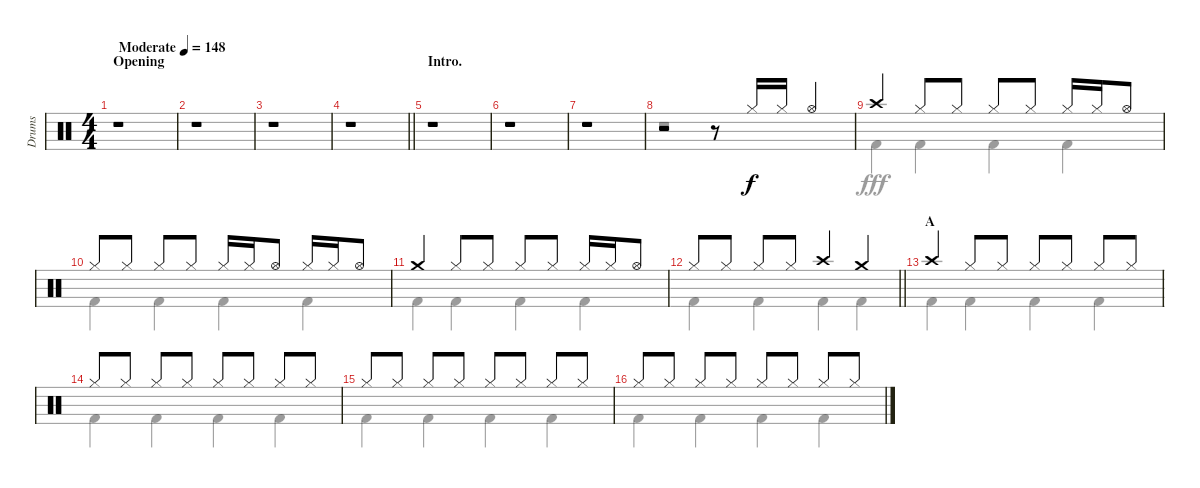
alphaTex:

\track ("Drums" "Drums") {instrument percussion}
\staff {score}
\articulation defaults
\voice
\ts (4 4)
\section ("" "Opening")
\tempo (148 "Moderate")
\clef neutral
\ks c
r.1{dy f} |
r.1 |
r.1 |
\barLineRight lightlight
r.1 |
\section ("" "Intro.")
r.1 |
r.1 |
r.1 |
r.2 r.8 "Hi-Hat (closed)".16 "Hi-Hat (closed)".16 "Hi-Hat (open)".4 |
"Crash high (hit)".4 "Hi-Hat (closed)".8 "Hi-Hat (closed)".8 "Hi-Hat (closed)".8 "Hi-Hat (closed)".8 "Hi-Hat (closed)".16 "Hi-Hat (closed)".16 "Hi-Hat (open)".8 |
"Hi-Hat (closed)".8 "Hi-Hat (closed)".8 "Hi-Hat (closed)".8 "Hi-Hat (closed)".8 "Hi-Hat (closed)".16 "Hi-Hat (closed)".16 "Hi-Hat (open)".8 "Hi-Hat (closed)".16 "Hi-Hat (closed)".16 "Hi-Hat (open)".8 |
"Crash medium (hit)".4 "Hi-Hat (closed)".8 "Hi-Hat (closed)".8 "Hi-Hat (closed)".8 "Hi-Hat (closed)".8 "Hi-Hat (closed)".16 "Hi-Hat (closed)".16 "Hi-Hat (open)".8 |
\barLineRight lightlight "Hi-Hat (closed)".8 "Hi-Hat (closed)".8 "Hi-Hat (closed)".8 "Hi-Hat (closed)".8 "Crash high (hit)".4 "Crash medium (hit)".4
|
\section ("" "A")
"Crash high (hit)".4 "Hi-Hat (closed)".8 "Hi-Hat (closed)".8 "Hi-Hat (closed)".8 "Hi-Hat (closed)".8 "Hi-Hat (closed)".8 "Hi-Hat (closed)".8 |
"Hi-Hat (closed)".8 "Hi-Hat (closed)".8 "Hi-Hat (closed)".8 "Hi-Hat (closed)".8 "Hi-Hat (closed)".8 "Hi-Hat (closed)".8 "Hi-Hat (closed)".8 "Hi-Hat (closed)".8 |
"Hi-Hat (closed)".8 "Hi-Hat (closed)".8 "Hi-Hat (closed)".8 "Hi-Hat (closed)".8 "Hi-Hat (closed)".8 "Hi-Hat (closed)".8 "Hi-Hat (closed)".8 "Hi-Hat (closed)".8 |
"Hi-Hat (closed)".8 "Hi-Hat (closed)".8 "Hi-Hat (closed)".8 "Hi-Hat (closed)".8 "Hi-Hat (closed)".8 "Hi-Hat (closed)".8 "Hi-Hat (closed)".8 "Hi-Hat (closed)".8
\voice
\clef neutral
\ottava regular
\simile none
\ks c
r.1{dy fff} |
r.1 |
r.1 |
\barLineRight lightlight
r.1 |
r.1 |
r.1 |
r.1 |
r.1 |
"Kick (hit) 2".4 "Kick (hit) 2".4 "Kick (hit) 2".4 "Kick (hit) 2".4 |
"Kick (hit) 2".4 "Kick (hit) 2".4 "Kick (hit) 2".4 "Kick (hit) 2".4 |
"Kick (hit) 2".4 "Kick (hit) 2".4 "Kick (hit) 2".4 "Kick (hit) 2".4 |
\barLineRight lightlight "Kick (hit) 2".4 "Kick (hit) 2".4 "Kick (hit) 2".4 "Kick (hit) 2".4
|
"Kick (hit) 2".4 "Kick (hit) 2".4 "Kick (hit) 2".4 "Kick (hit) 2".4 |
"Kick (hit) 2".4 "Kick (hit) 2".4 "Kick (hit) 2".4 "Kick (hit) 2".4 |
"Kick (hit) 2".4 "Kick (hit) 2".4 "Kick (hit) 2".4 "Kick (hit) 2".4 |
"Kick (hit) 2".4 "Kick (hit) 2".4 "Kick (hit) 2".4 "Kick (hit) 2".4
